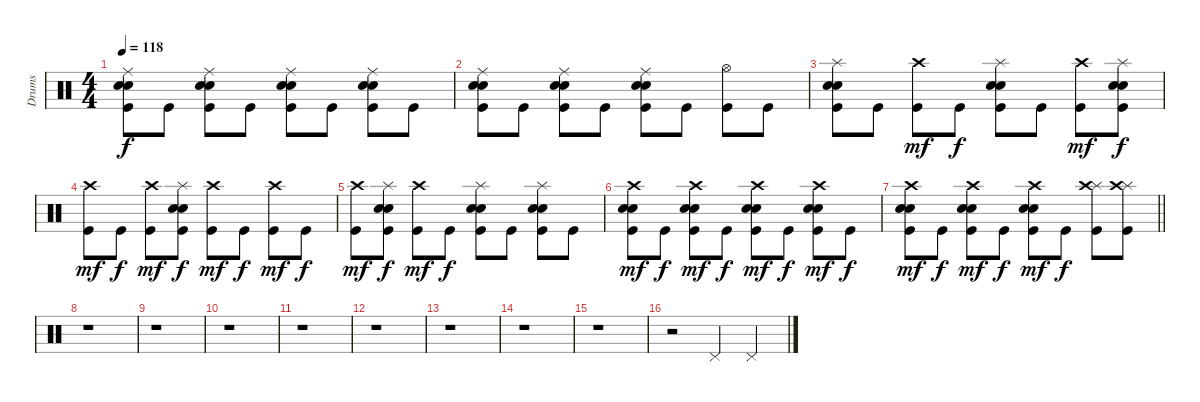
\track ("Drums" "Drums") {instrument percussion}
\staff {score}
\articulation defaults
\ts (4 4)
\tempo 118
\clef neutral
\ks c
("Ride (middle)" "Snare (hit) 2" "Electric Snare (hit)" "Kick (hit)").8{dy f} "Kick (hit)".8 ("Ride (middle)" "Snare (hit) 2" "Electric Snare (hit)" "Kick (hit)").8 "Kick (hit)".8 ("Ride (middle)" "Snare (hit) 2" "Electric Snare (hit)" "Kick (hit)").8 "Kick (hit)".8 ("Ride (middle)" "Snare (hit) 2" "Electric Snare (hit)" "Kick (hit)").8 "Kick (hit)".8 |
("Ride (middle)" "Snare (hit) 2" "Electric Snare (hit)" "Kick (hit)").8 "Kick (hit)".8 ("Ride (middle)" "Snare (hit) 2" "Electric Snare (hit)" "Kick (hit)").8 "Kick (hit)".8 ("Ride (middle)" "Snare (hit) 2" "Electric Snare (hit)" "Kick (hit)").8 "Kick (hit)".8 ("Hi-Hat (open)" "Kick (hit)").8 "Kick (hit)".8 |
("Splash (hit)" "Snare (hit) 2" "Electric Snare (hit)" "Kick (hit)").8 "Kick (hit)".8 ("Crash high (hit)" "Kick (hit)").8{dy mf} "Kick (hit)".8{dy f} ("Splash (hit)" "Snare (hit) 2" "Electric Snare (hit)" "Kick (hit)").8 "Kick (hit)".8 ("Crash high (hit)" "Kick (hit)").8{dy mf} ("Splash (hit)" "Snare (hit) 2" "Electric Snare (hit)" "Kick (hit)").8{dy f} |
("Crash high (hit)" "Kick (hit)").8{dy mf} "Kick (hit)".8{dy f} ("Crash high (hit)" "Kick (hit)").8{dy mf} ("Splash (hit)" "Snare (hit) 2" "Electric Snare (hit)" "Kick (hit)").8{dy f} ("Crash high (hit)" "Kick (hit)").8{dy mf} "Kick (hit)".8{dy f} ("Crash high (hit)" "Kick (hit)").8{dy mf} "Kick (hit)".8{dy f} |
("Crash high (hit)" "Kick (hit)").8{dy mf} ("Splash (hit)" "Snare (hit) 2" "Electric Snare (hit)" "Kick (hit)").8{dy f} ("Crash high (hit)" "Kick (hit)").8{dy mf} "Kick (hit)".8{dy f} ("Splash (hit)" "Snare (hit) 2" "Electric Snare (hit)" "Kick (hit)").8 "Kick (hit)".8 ("Splash (hit)" "Snare (hit) 2" "Electric Snare (hit)" "Kick (hit)").8 "Kick (hit)".8 |
("Crash high (hit)" "Snare (hit) 2" "Electric Snare (hit)" "Kick (hit)").8{dy mf} "Kick (hit)".8{dy f} ("Crash high (hit)" "Snare (hit) 2" "Electric Snare (hit)" "Kick (hit)").8{dy mf} "Kick (hit)".8{dy f} ("Crash high (hit)" "Snare (hit) 2" "Electric Snare (hit)" "Kick (hit)").8{dy mf} "Kick (hit)".8{dy f} ("Crash high (hit)" "Snare (hit) 2" "Electric Snare (hit)" "Kick (hit)").8{dy mf} "Kick (hit)".8{dy f} |
\barLineRight lightlight
("Crash high (hit)" "Snare (hit) 2" "Electric Snare (hit)" "Kick (hit)").8{dy mf} "Kick (hit)".8{dy f} ("Crash high (hit)" "Snare (hit) 2" "Electric Snare (hit)" "Kick (hit)").8{dy mf} "Kick (hit)".8{dy f} ("Crash high (hit)" "Snare (hit) 2" "Electric Snare (hit)" "Kick (hit)").8{dy mf} "Kick (hit)".8{dy f} ("Splash (hit)" "Crash high (hit)" "Kick (hit)").8 ("Splash (hit)" "Crash high (hit)" "Kick (hit)").8 |
r.1 |
r.1 |
r.1 |
r.1 |
r.1 |
r.1 |
r.1 |
r.1 |
r.2 "Pedal Hi-Hat (hit)".4 "Pedal Hi-Hat (hit)".4
